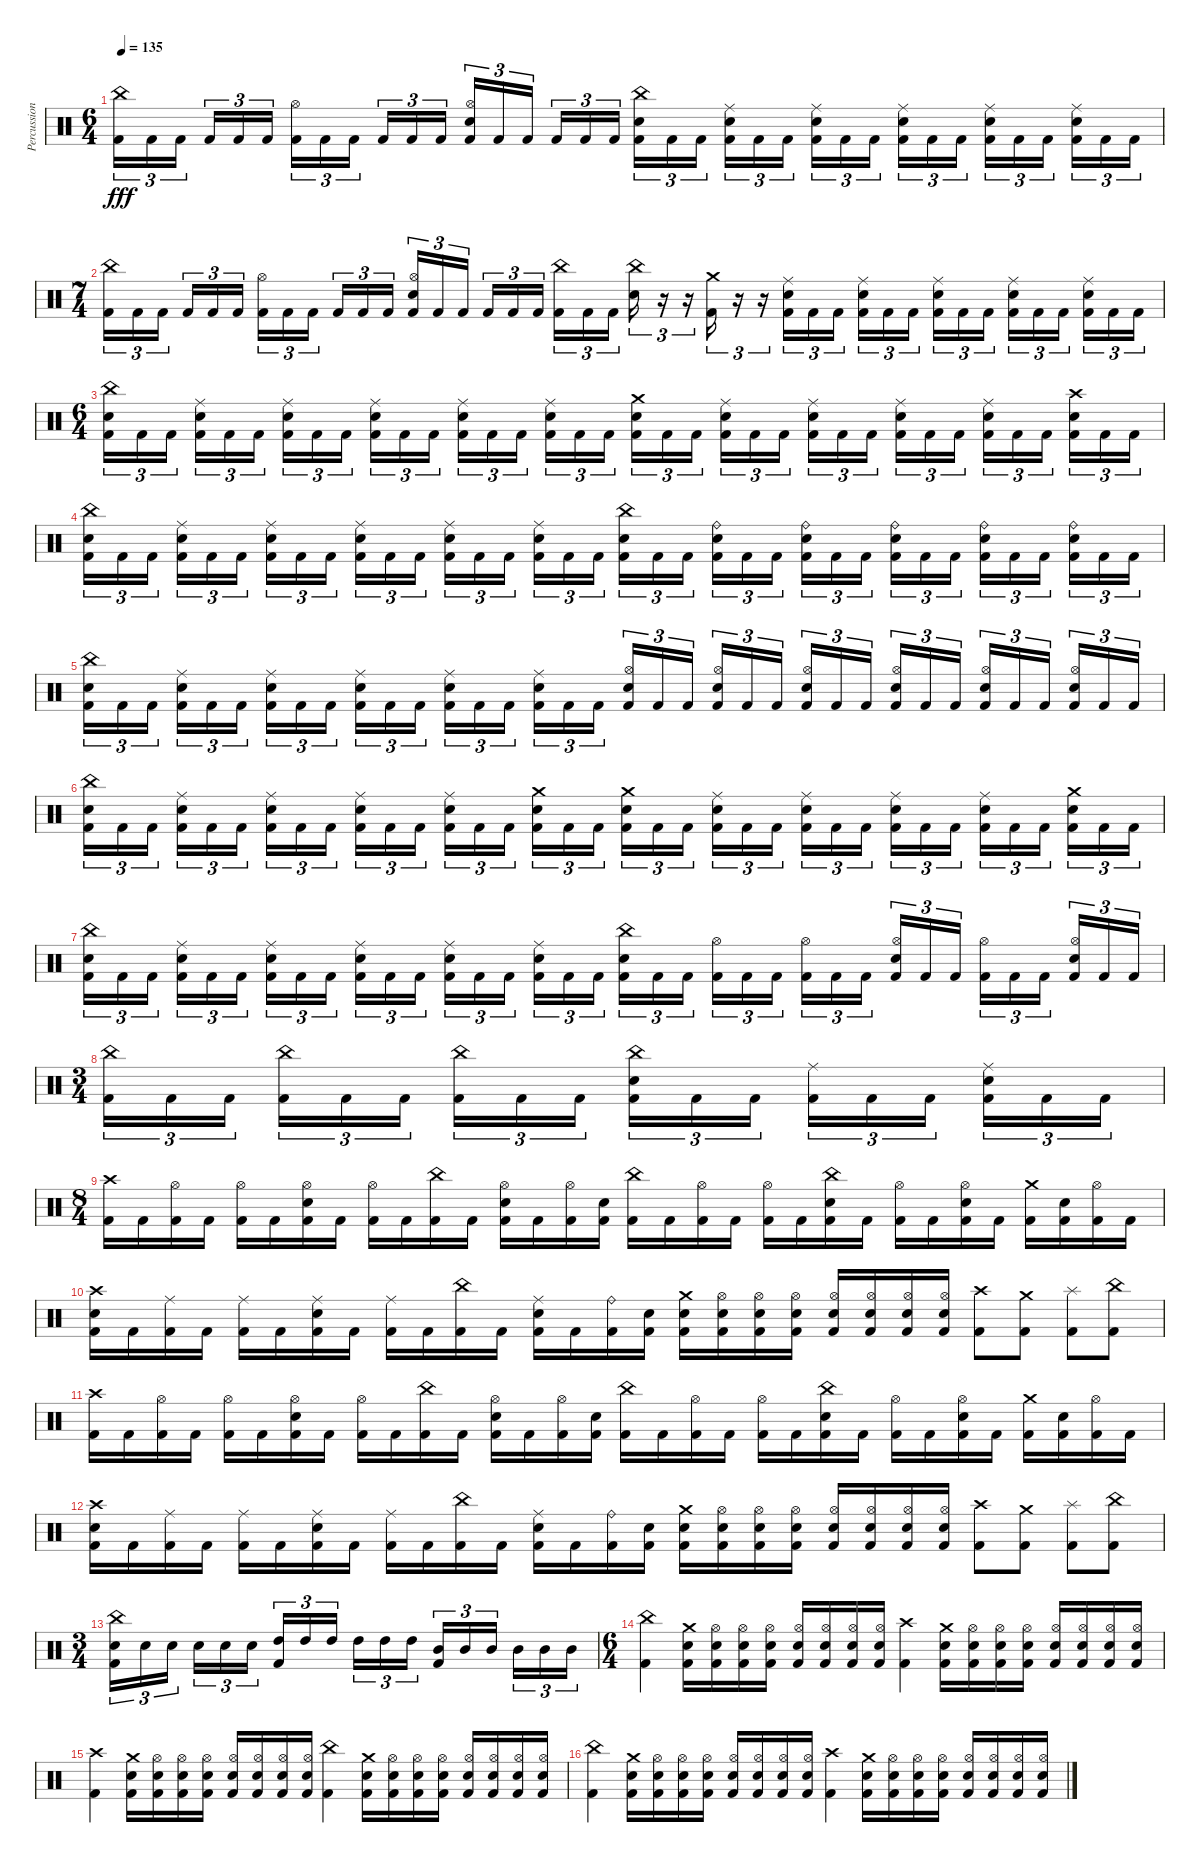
\track ("Percussion" "Percussion") {instrument percussion}
\staff {score}
\articulation defaults
\ts (6 4)
\tempo 135
\clef neutral
\ks c
("China (hit)" "Kick (hit) 2").16{tu (3 2) dy fff} "Kick (hit) 2".16{tu (3 2)} "Kick (hit) 2".16{tu (3 2) beam splitsecondary} "Kick (hit) 2".16{tu (3 2)} "Kick (hit) 2".16{tu (3 2)} "Kick (hit) 2".16{tu (3 2) beam splitsecondary} ("Hi-Hat (open)" "Kick (hit) 2").16{tu (3 2)} "Kick (hit) 2".16{tu (3 2)} "Kick (hit) 2".16{tu (3 2) beam splitsecondary} "Kick (hit) 2".16{tu (3 2)} "Kick (hit) 2".16{tu (3 2)} "Kick (hit) 2".16{tu (3 2) beam splitsecondary} ("Hi-Hat (open)" "Electric Snare (hit)" "Kick (hit) 2").16{tu (3 2)} "Kick (hit) 2".16{tu (3 2)} "Kick (hit) 2".16{tu (3 2) beam splitsecondary} "Kick (hit) 2".16{tu (3 2)} "Kick (hit) 2".16{tu (3 2)} "Kick (hit) 2".16{tu (3 2)} ("China (hit)" "Electric Snare (hit)" "Kick (hit) 2").16{tu (3 2)} "Kick (hit) 2".16{tu (3 2)} "Kick (hit) 2".16{tu (3 2) beam splitsecondary} ("Ride (middle)" "Electric Snare (hit)" "Kick (hit) 2").16{tu (3 2)} "Kick (hit) 2".16{tu (3 2)} "Kick (hit) 2".16{tu (3 2) beam splitsecondary} ("Ride (middle)" "Electric Snare (hit)" "Kick (hit) 2").16{tu (3 2)} "Kick (hit) 2".16{tu (3 2)} "Kick (hit) 2".16{tu (3 2) beam splitsecondary} ("Ride (middle)" "Electric Snare (hit)" "Kick (hit) 2").16{tu (3 2)} "Kick (hit) 2".16{tu (3 2)} "Kick (hit) 2".16{tu (3 2) beam splitsecondary} ("Ride (middle)" "Electric Snare (hit)" "Kick (hit) 2").16{tu (3 2)} "Kick (hit) 2".16{tu (3 2)} "Kick (hit) 2".16{tu (3 2) beam splitsecondary} ("Ride (middle)" "Electric Snare (hit)" "Kick (hit) 2").16{tu (3 2)} "Kick (hit) 2".16{tu (3 2)} "Kick (hit) 2".16{tu (3 2)} |
\ts (7 4)
("China (hit)" "Kick (hit) 2").16{tu (3 2)} "Kick (hit) 2".16{tu (3 2)} "Kick (hit) 2".16{tu (3 2) beam splitsecondary} "Kick (hit) 2".16{tu (3 2)} "Kick (hit) 2".16{tu (3 2)} "Kick (hit) 2".16{tu (3 2)} ("Hi-Hat (open)" "Kick (hit) 2").16{tu (3 2)} "Kick (hit) 2".16{tu (3 2)} "Kick (hit) 2".16{tu (3 2) beam splitsecondary} "Kick (hit) 2".16{tu (3 2)} "Kick (hit) 2".16{tu (3 2)} "Kick (hit) 2".16{tu (3 2)} ("Hi-Hat (open)" "Electric Snare (hit)" "Kick (hit) 2").16{tu (3 2)} "Kick (hit) 2".16{tu (3 2)} "Kick (hit) 2".16{tu (3 2) beam splitsecondary} "Kick (hit) 2".16{tu (3 2)} "Kick (hit) 2".16{tu (3 2)} "Kick (hit) 2".16{tu (3 2)} ("China (hit)" "Kick (hit) 2").16{tu (3 2)} "Kick (hit) 2".16{tu (3 2)} "Kick (hit) 2".16{tu (3 2) beam splitsecondary} ("China (hit)" "Electric Snare (hit)").16{tu (3 2)} r.16{tu (3 2)} r.16{tu (3 2)} ("Crash medium (hit)" "Kick (hit) 2").16{tu (3 2)} r.16{tu (3 2)} r.16{tu (3 2)} ("Ride (middle)" "Electric Snare (hit)" "Kick (hit) 2").16{tu (3 2)} "Kick (hit) 2".16{tu (3 2)} "Kick (hit) 2".16{tu (3 2)} ("Ride (middle)" "Electric Snare (hit)" "Kick (hit) 2").16{tu (3 2)} "Kick (hit) 2".16{tu (3 2)} "Kick (hit) 2".16{tu (3 2) beam splitsecondary} ("Ride (middle)" "Electric Snare (hit)" "Kick (hit) 2").16{tu (3 2)} "Kick (hit) 2".16{tu (3 2)} "Kick (hit) 2".16{tu (3 2)} ("Ride (middle)" "Electric Snare (hit)" "Kick (hit) 2").16{tu (3 2)} "Kick (hit) 2".16{tu (3 2)} "Kick (hit) 2".16{tu (3 2) beam splitsecondary} ("Ride (middle)" "Electric Snare (hit)" "Kick (hit) 2").16{tu (3 2)} "Kick (hit) 2".16{tu (3 2)} "Kick (hit) 2".16{tu (3 2)} |
\ts (6 4)
("China (hit)" "Electric Snare (hit)" "Kick (hit) 2").16{tu (3 2)} "Kick (hit) 2".16{tu (3 2)} "Kick (hit) 2".16{tu (3 2) beam splitsecondary} ("Ride (middle)" "Electric Snare (hit)" "Kick (hit) 2").16{tu (3 2)} "Kick (hit) 2".16{tu (3 2)} "Kick (hit) 2".16{tu (3 2) beam splitsecondary} ("Ride (middle)" "Electric Snare (hit)" "Kick (hit) 2").16{tu (3 2)} "Kick (hit) 2".16{tu (3 2)} "Kick (hit) 2".16{tu (3 2) beam splitsecondary} ("Ride (middle)" "Electric Snare (hit)" "Kick (hit) 2").16{tu (3 2)} "Kick (hit) 2".16{tu (3 2)} "Kick (hit) 2".16{tu (3 2) beam splitsecondary} ("Ride (middle)" "Electric Snare (hit)" "Kick (hit) 2").16{tu (3 2)} "Kick (hit) 2".16{tu (3 2)} "Kick (hit) 2".16{tu (3 2) beam splitsecondary} ("Ride (middle)" "Electric Snare (hit)" "Kick (hit) 2").16{tu (3 2)} "Kick (hit) 2".16{tu (3 2)} "Kick (hit) 2".16{tu (3 2)} ("Crash medium (hit)" "Electric Snare (hit)" "Kick (hit) 2").16{tu (3 2)} "Kick (hit) 2".16{tu (3 2)} "Kick (hit) 2".16{tu (3 2) beam splitsecondary} ("Ride (middle)" "Electric Snare (hit)" "Kick (hit) 2").16{tu (3 2)} "Kick (hit) 2".16{tu (3 2)} "Kick (hit) 2".16{tu (3 2) beam splitsecondary} ("Ride (middle)" "Electric Snare (hit)" "Kick (hit) 2").16{tu (3 2)} "Kick (hit) 2".16{tu (3 2)} "Kick (hit) 2".16{tu (3 2) beam splitsecondary} ("Ride (middle)" "Electric Snare (hit)" "Kick (hit) 2").16{tu (3 2)} "Kick (hit) 2".16{tu (3 2)} "Kick (hit) 2".16{tu (3 2) beam splitsecondary} ("Ride (middle)" "Electric Snare (hit)" "Kick (hit) 2").16{tu (3 2)} "Kick (hit) 2".16{tu (3 2)} "Kick (hit) 2".16{tu (3 2) beam splitsecondary} ("Crash high (hit)" "Electric Snare (hit)" "Kick (hit) 2").16{tu (3 2)} "Kick (hit) 2".16{tu (3 2)} "Kick (hit) 2".16{tu (3 2)} |
("China (hit)" "Electric Snare (hit)" "Kick (hit) 2").16{tu (3 2)} "Kick (hit) 2".16{tu (3 2)} "Kick (hit) 2".16{tu (3 2) beam splitsecondary} ("Ride (middle)" "Electric Snare (hit)" "Kick (hit) 2").16{tu (3 2)} "Kick (hit) 2".16{tu (3 2)} "Kick (hit) 2".16{tu (3 2) beam splitsecondary} ("Ride (middle)" "Electric Snare (hit)" "Kick (hit) 2").16{tu (3 2)} "Kick (hit) 2".16{tu (3 2)} "Kick (hit) 2".16{tu (3 2) beam splitsecondary} ("Ride (middle)" "Electric Snare (hit)" "Kick (hit) 2").16{tu (3 2)} "Kick (hit) 2".16{tu (3 2)} "Kick (hit) 2".16{tu (3 2) beam splitsecondary} ("Ride (middle)" "Electric Snare (hit)" "Kick (hit) 2").16{tu (3 2)} "Kick (hit) 2".16{tu (3 2)} "Kick (hit) 2".16{tu (3 2) beam splitsecondary} ("Ride (middle)" "Electric Snare (hit)" "Kick (hit) 2").16{tu (3 2)} "Kick (hit) 2".16{tu (3 2)} "Kick (hit) 2".16{tu (3 2)} ("China (hit)" "Electric Snare (hit)" "Kick (hit) 2").16{tu (3 2)} "Kick (hit) 2".16{tu (3 2)} "Kick (hit) 2".16{tu (3 2) beam splitsecondary} ("Ride (bell)" "Electric Snare (hit)" "Kick (hit) 2").16{tu (3 2)} "Kick (hit) 2".16{tu (3 2)} "Kick (hit) 2".16{tu (3 2) beam splitsecondary} ("Ride (bell)" "Electric Snare (hit)" "Kick (hit) 2").16{tu (3 2)} "Kick (hit) 2".16{tu (3 2)} "Kick (hit) 2".16{tu (3 2) beam splitsecondary} ("Ride (bell)" "Electric Snare (hit)" "Kick (hit) 2").16{tu (3 2)} "Kick (hit) 2".16{tu (3 2)} "Kick (hit) 2".16{tu (3 2) beam splitsecondary} ("Ride (bell)" "Electric Snare (hit)" "Kick (hit) 2").16{tu (3 2)} "Kick (hit) 2".16{tu (3 2)} "Kick (hit) 2".16{tu (3 2) beam splitsecondary} ("Ride (bell)" "Electric Snare (hit)" "Kick (hit) 2").16{tu (3 2)} "Kick (hit) 2".16{tu (3 2)} "Kick (hit) 2".16{tu (3 2)} |
("China (hit)" "Electric Snare (hit)" "Kick (hit) 2").16{tu (3 2)} "Kick (hit) 2".16{tu (3 2)} "Kick (hit) 2".16{tu (3 2) beam splitsecondary} ("Ride (middle)" "Electric Snare (hit)" "Kick (hit) 2").16{tu (3 2)} "Kick (hit) 2".16{tu (3 2)} "Kick (hit) 2".16{tu (3 2) beam splitsecondary} ("Ride (middle)" "Electric Snare (hit)" "Kick (hit) 2").16{tu (3 2)} "Kick (hit) 2".16{tu (3 2)} "Kick (hit) 2".16{tu (3 2) beam splitsecondary} ("Ride (middle)" "Electric Snare (hit)" "Kick (hit) 2").16{tu (3 2)} "Kick (hit) 2".16{tu (3 2)} "Kick (hit) 2".16{tu (3 2) beam splitsecondary} ("Ride (middle)" "Electric Snare (hit)" "Kick (hit) 2").16{tu (3 2)} "Kick (hit) 2".16{tu (3 2)} "Kick (hit) 2".16{tu (3 2) beam splitsecondary} ("Ride (middle)" "Electric Snare (hit)" "Kick (hit) 2").16{tu (3 2)} "Kick (hit) 2".16{tu (3 2)} "Kick (hit) 2".16{tu (3 2)} ("Hi-Hat (open)" "Electric Snare (hit)" "Kick (hit) 2").16{tu (3 2)} "Kick (hit) 2".16{tu (3 2)} "Kick (hit) 2".16{tu (3 2) beam splitsecondary} ("Hi-Hat (open)" "Electric Snare (hit)" "Kick (hit) 2").16{tu (3 2)} "Kick (hit) 2".16{tu (3 2)} "Kick (hit) 2".16{tu (3 2) beam splitsecondary} ("Hi-Hat (open)" "Electric Snare (hit)" "Kick (hit) 2").16{tu (3 2)} "Kick (hit) 2".16{tu (3 2)} "Kick (hit) 2".16{tu (3 2) beam splitsecondary} ("Hi-Hat (open)" "Electric Snare (hit)" "Kick (hit) 2").16{tu (3 2)} "Kick (hit) 2".16{tu (3 2)} "Kick (hit) 2".16{tu (3 2) beam splitsecondary} ("Hi-Hat (open)" "Electric Snare (hit)" "Kick (hit) 2").16{tu (3 2)} "Kick (hit) 2".16{tu (3 2)} "Kick (hit) 2".16{tu (3 2) beam splitsecondary} ("Hi-Hat (open)" "Electric Snare (hit)" "Kick (hit) 2").16{tu (3 2)} "Kick (hit) 2".16{tu (3 2)} "Kick (hit) 2".16{tu (3 2)} |
("China (hit)" "Electric Snare (hit)" "Kick (hit) 2").16{tu (3 2)} "Kick (hit) 2".16{tu (3 2)} "Kick (hit) 2".16{tu (3 2) beam splitsecondary} ("Ride (middle)" "Electric Snare (hit)" "Kick (hit) 2").16{tu (3 2)} "Kick (hit) 2".16{tu (3 2)} "Kick (hit) 2".16{tu (3 2) beam splitsecondary} ("Ride (middle)" "Electric Snare (hit)" "Kick (hit) 2").16{tu (3 2)} "Kick (hit) 2".16{tu (3 2)} "Kick (hit) 2".16{tu (3 2) beam splitsecondary} ("Ride (middle)" "Electric Snare (hit)" "Kick (hit) 2").16{tu (3 2)} "Kick (hit) 2".16{tu (3 2)} "Kick (hit) 2".16{tu (3 2) beam splitsecondary} ("Ride (middle)" "Electric Snare (hit)" "Kick (hit) 2").16{tu (3 2)} "Kick (hit) 2".16{tu (3 2)} "Kick (hit) 2".16{tu (3 2) beam splitsecondary} ("Crash medium (hit)" "Electric Snare (hit)" "Kick (hit) 2").16{tu (3 2)} "Kick (hit) 2".16{tu (3 2)} "Kick (hit) 2".16{tu (3 2)} ("Crash medium (hit)" "Electric Snare (hit)" "Kick (hit) 2").16{tu (3 2)} "Kick (hit) 2".16{tu (3 2)} "Kick (hit) 2".16{tu (3 2) beam splitsecondary} ("Ride (middle)" "Electric Snare (hit)" "Kick (hit) 2").16{tu (3 2)} "Kick (hit) 2".16{tu (3 2)} "Kick (hit) 2".16{tu (3 2) beam splitsecondary} ("Ride (middle)" "Electric Snare (hit)" "Kick (hit) 2").16{tu (3 2)} "Kick (hit) 2".16{tu (3 2)} "Kick (hit) 2".16{tu (3 2) beam splitsecondary} ("Ride (middle)" "Electric Snare (hit)" "Kick (hit) 2").16{tu (3 2)} "Kick (hit) 2".16{tu (3 2)} "Kick (hit) 2".16{tu (3 2) beam splitsecondary} ("Ride (middle)" "Electric Snare (hit)" "Kick (hit) 2").16{tu (3 2)} "Kick (hit) 2".16{tu (3 2)} "Kick (hit) 2".16{tu (3 2) beam splitsecondary} ("Crash medium (hit)" "Electric Snare (hit)" "Kick (hit) 2").16{tu (3 2)} "Kick (hit) 2".16{tu (3 2)} "Kick (hit) 2".16{tu (3 2)} |
("China (hit)" "Electric Snare (hit)" "Kick (hit) 2").16{tu (3 2)} "Kick (hit) 2".16{tu (3 2)} "Kick (hit) 2".16{tu (3 2) beam splitsecondary} ("Ride (middle)" "Electric Snare (hit)" "Kick (hit) 2").16{tu (3 2)} "Kick (hit) 2".16{tu (3 2)} "Kick (hit) 2".16{tu (3 2) beam splitsecondary} ("Ride (middle)" "Electric Snare (hit)" "Kick (hit) 2").16{tu (3 2)} "Kick (hit) 2".16{tu (3 2)} "Kick (hit) 2".16{tu (3 2) beam splitsecondary} ("Ride (middle)" "Electric Snare (hit)" "Kick (hit) 2").16{tu (3 2)} "Kick (hit) 2".16{tu (3 2)} "Kick (hit) 2".16{tu (3 2) beam splitsecondary} ("Ride (middle)" "Electric Snare (hit)" "Kick (hit) 2").16{tu (3 2)} "Kick (hit) 2".16{tu (3 2)} "Kick (hit) 2".16{tu (3 2) beam splitsecondary} ("Ride (middle)" "Electric Snare (hit)" "Kick (hit) 2").16{tu (3 2)} "Kick (hit) 2".16{tu (3 2)} "Kick (hit) 2".16{tu (3 2)} ("China (hit)" "Electric Snare (hit)" "Kick (hit) 2").16{tu (3 2)} "Kick (hit) 2".16{tu (3 2)} "Kick (hit) 2".16{tu (3 2) beam splitsecondary} ("Hi-Hat (open)" "Kick (hit) 2").16{tu (3 2)} "Kick (hit) 2".16{tu (3 2)} "Kick (hit) 2".16{tu (3 2) beam splitsecondary} ("Hi-Hat (open)" "Kick (hit) 2").16{tu (3 2)} "Kick (hit) 2".16{tu (3 2)} "Kick (hit) 2".16{tu (3 2) beam splitsecondary} ("Hi-Hat (open)" "Electric Snare (hit)" "Kick (hit) 2").16{tu (3 2)} "Kick (hit) 2".16{tu (3 2)} "Kick (hit) 2".16{tu (3 2) beam splitsecondary} ("Hi-Hat (open)" "Kick (hit) 2").16{tu (3 2)} "Kick (hit) 2".16{tu (3 2)} "Kick (hit) 2".16{tu (3 2) beam splitsecondary} ("Hi-Hat (open)" "Electric Snare (hit)" "Kick (hit) 2").16{tu (3 2)} "Kick (hit) 2".16{tu (3 2)} "Kick (hit) 2".16{tu (3 2)} |
\ts (3 4)
("China (hit)" "Kick (hit) 2").16{tu (3 2)} "Kick (hit) 2".16{tu (3 2)} "Kick (hit) 2".16{tu (3 2) beam splitsecondary} ("China (hit)" "Kick (hit) 2").16{tu (3 2)} "Kick (hit) 2".16{tu (3 2)} "Kick (hit) 2".16{tu (3 2)} ("China (hit)" "Kick (hit) 2").16{tu (3 2)} "Kick (hit) 2".16{tu (3 2)} "Kick (hit) 2".16{tu (3 2) beam splitsecondary} ("China (hit)" "Electric Snare (hit)" "Kick (hit) 2").16{tu (3 2)} "Kick (hit) 2".16{tu (3 2)} "Kick (hit) 2".16{tu (3 2)} ("Ride (middle)" "Kick (hit) 2").16{tu (3 2)} "Kick (hit) 2".16{tu (3 2)} "Kick (hit) 2".16{tu (3 2) beam splitsecondary} ("Ride (middle)" "Electric Snare (hit)" "Kick (hit) 2").16{tu (3 2)} "Kick (hit) 2".16{tu (3 2)} "Kick (hit) 2".16{tu (3 2)} |
\ts (8 4)
("Crash high (hit)" "Kick (hit) 2").16 "Kick (hit) 2".16 ("Hi-Hat (open)" "Kick (hit) 2").16 "Kick (hit) 2".16 ("Hi-Hat (open)" "Kick (hit) 2").16 "Kick (hit) 2".16 ("Electric Snare (hit)" "Hi-Hat (open)" "Kick (hit) 2").16 "Kick (hit) 2".16 ("Hi-Hat (open)" "Kick (hit) 2").16 "Kick (hit) 2".16 ("China (hit)" "Kick (hit) 2").16 "Kick (hit) 2".16 ("Electric Snare (hit)" "Hi-Hat (open)" "Kick (hit) 2").16 "Kick (hit) 2".16 ("Hi-Hat (open)" "Kick (hit) 2").16 ("Electric Snare (hit)" "Kick (hit) 2").16 ("China (hit)" "Kick (hit) 2").16 "Kick (hit) 2".16 ("Hi-Hat (open)" "Kick (hit) 2").16 "Kick (hit) 2".16 ("Hi-Hat (open)" "Kick (hit) 2").16 "Kick (hit) 2".16 ("China (hit)" "Electric Snare (hit)" "Kick (hit) 2").16 "Kick (hit) 2".16 ("Hi-Hat (open)" "Kick (hit) 2").16 "Kick (hit) 2".16 ("Hi-Hat (open)" "Electric Snare (hit)" "Kick (hit) 2").16 "Kick (hit) 2".16 ("Crash medium (hit)" "Kick (hit) 2").16 ("Electric Snare (hit)" "Kick (hit) 2").16 ("Hi-Hat (open)" "Kick (hit) 2").16 "Kick (hit) 2".16 |
("Electric Snare (hit)" "Crash high (hit)" "Kick (hit) 2").16 "Kick (hit) 2".16 ("Ride (middle)" "Kick (hit) 2").16 "Kick (hit) 2".16 ("Ride (middle)" "Kick (hit) 2").16 "Kick (hit) 2".16 ("Electric Snare (hit)" "Ride (middle)" "Kick (hit) 2").16 "Kick (hit) 2".16 ("Ride (middle)" "Kick (hit) 2").16 "Kick (hit) 2".16 ("China (hit)" "Kick (hit) 2").16 "Kick (hit) 2".16 ("Electric Snare (hit)" "Ride (middle)" "Kick (hit) 2").16 "Kick (hit) 2".16 ("Ride (bell)" "Kick (hit) 2").16 ("Electric Snare (hit)" "Kick (hit) 2").16 ("Crash medium (hit)" "Kick (hit) 2" "Electric Snare (hit)").16 ("Hi-Hat (open)" "Kick (hit) 2" "Electric Snare (hit)").16 ("Hi-Hat (open)" "Kick (hit) 2" "Electric Snare (hit)").16 ("Hi-Hat (open)" "Kick (hit) 2" "Electric Snare (hit)").16 ("Hi-Hat (open)" "Kick (hit) 2" "Electric Snare (hit)").16 ("Hi-Hat (open)" "Kick (hit) 2" "Electric Snare (hit)").16 ("Hi-Hat (open)" "Kick (hit) 2" "Electric Snare (hit)").16 ("Hi-Hat (open)" "Kick (hit) 2" "Electric Snare (hit)").16 ("Crash high (hit)" "Kick (hit) 2").8 ("Crash medium (hit)" "Kick (hit) 2").8 ("Splash (hit)" "Kick (hit) 2").8 ("China (hit)" "Kick (hit) 2").8 |
("Crash high (hit)" "Kick (hit) 2").16 "Kick (hit) 2".16 ("Hi-Hat (open)" "Kick (hit) 2").16 "Kick (hit) 2".16 ("Hi-Hat (open)" "Kick (hit) 2").16 "Kick (hit) 2".16 ("Electric Snare (hit)" "Hi-Hat (open)" "Kick (hit) 2").16 "Kick (hit) 2".16 ("Hi-Hat (open)" "Kick (hit) 2").16 "Kick (hit) 2".16 ("China (hit)" "Kick (hit) 2").16 "Kick (hit) 2".16 ("Electric Snare (hit)" "Hi-Hat (open)" "Kick (hit) 2").16 "Kick (hit) 2".16 ("Hi-Hat (open)" "Kick (hit) 2").16 ("Electric Snare (hit)" "Kick (hit) 2").16 ("China (hit)" "Kick (hit) 2").16 "Kick (hit) 2".16 ("Hi-Hat (open)" "Kick (hit) 2").16 "Kick (hit) 2".16 ("Hi-Hat (open)" "Kick (hit) 2").16 "Kick (hit) 2".16 ("China (hit)" "Electric Snare (hit)" "Kick (hit) 2").16 "Kick (hit) 2".16 ("Hi-Hat (open)" "Kick (hit) 2").16 "Kick (hit) 2".16 ("Hi-Hat (open)" "Electric Snare (hit)" "Kick (hit) 2").16 "Kick (hit) 2".16 ("Crash medium (hit)" "Kick (hit) 2").16 ("Electric Snare (hit)" "Kick (hit) 2").16 ("Hi-Hat (open)" "Kick (hit) 2").16 "Kick (hit) 2".16 |
("Electric Snare (hit)" "Crash high (hit)" "Kick (hit) 2").16 "Kick (hit) 2".16 ("Ride (middle)" "Kick (hit) 2").16 "Kick (hit) 2".16 ("Ride (middle)" "Kick (hit) 2").16 "Kick (hit) 2".16 ("Electric Snare (hit)" "Ride (middle)" "Kick (hit) 2").16 "Kick (hit) 2".16 ("Ride (middle)" "Kick (hit) 2").16 "Kick (hit) 2".16 ("China (hit)" "Kick (hit) 2").16 "Kick (hit) 2".16 ("Electric Snare (hit)" "Ride (middle)" "Kick (hit) 2").16 "Kick (hit) 2".16 ("Ride (bell)" "Kick (hit) 2").16 ("Electric Snare (hit)" "Kick (hit) 2").16 ("Crash medium (hit)" "Kick (hit) 2" "Electric Snare (hit)").16 ("Hi-Hat (open)" "Kick (hit) 2" "Electric Snare (hit)").16 ("Hi-Hat (open)" "Kick (hit) 2" "Electric Snare (hit)").16 ("Hi-Hat (open)" "Kick (hit) 2" "Electric Snare (hit)").16 ("Hi-Hat (open)" "Kick (hit) 2" "Electric Snare (hit)").16 ("Hi-Hat (open)" "Kick (hit) 2" "Electric Snare (hit)").16 ("Hi-Hat (open)" "Kick (hit) 2" "Electric Snare (hit)").16 ("Hi-Hat (open)" "Kick (hit) 2" "Electric Snare (hit)").16 ("Crash high (hit)" "Kick (hit) 2").8 ("Crash medium (hit)" "Kick (hit) 2").8 ("Splash (hit)" "Kick (hit) 2").8 ("China (hit)" "Kick (hit) 2").8 |
\ts (3 4)
("China (hit)" "Kick (hit) 2" "Electric Snare (hit)").16{tu (3 2)} "Electric Snare (hit)".16{tu (3 2)} "Electric Snare (hit)".16{tu (3 2) beam splitsecondary} "Electric Snare (hit)".16{tu (3 2)} "Electric Snare (hit)".16{tu (3 2)} "Electric Snare (hit)".16{tu (3 2)} ("Kick (hit) 2" "High Tom (hit)").16{tu (3 2)} "High Tom (hit)".16{tu (3 2)} "High Tom (hit)".16{tu (3 2) beam splitsecondary} "High Tom (hit)".16{tu (3 2)} "High Tom (hit)".16{tu (3 2)} "High Tom (hit)".16{tu (3 2)} ("Kick (hit) 2" "Mid Tom (hit)").16{tu (3 2)} "Mid Tom (hit)".16{tu (3 2)} "Mid Tom (hit)".16{tu (3 2) beam splitsecondary} "Mid Tom (hit)".16{tu (3 2)} "Mid Tom (hit)".16{tu (3 2)} "Mid Tom (hit)".16{tu (3 2)} |
\ts (6 4)
("Kick (hit) 2" "China (hit)").4 ("Crash medium (hit)" "Kick (hit) 2" "Electric Snare (hit)").16 ("Hi-Hat (open)" "Kick (hit) 2" "Electric Snare (hit)").16 ("Hi-Hat (open)" "Kick (hit) 2" "Electric Snare (hit)").16 ("Hi-Hat (open)" "Kick (hit) 2" "Electric Snare (hit)").16 ("Hi-Hat (open)" "Kick (hit) 2" "Electric Snare (hit)").16 ("Hi-Hat (open)" "Kick (hit) 2" "Electric Snare (hit)").16 ("Hi-Hat (open)" "Kick (hit) 2" "Electric Snare (hit)").16 ("Hi-Hat (open)" "Kick (hit) 2" "Electric Snare (hit)").16 ("Kick (hit) 2" "Crash high (hit)").4 ("Crash medium (hit)" "Kick (hit) 2" "Electric Snare (hit)").16 ("Hi-Hat (open)" "Kick (hit) 2" "Electric Snare (hit)").16 ("Hi-Hat (open)" "Kick (hit) 2" "Electric Snare (hit)").16 ("Hi-Hat (open)" "Kick (hit) 2" "Electric Snare (hit)").16 ("Hi-Hat (open)" "Kick (hit) 2" "Electric Snare (hit)").16 ("Hi-Hat (open)" "Kick (hit) 2" "Electric Snare (hit)").16 ("Hi-Hat (open)" "Kick (hit) 2" "Electric Snare (hit)").16 ("Hi-Hat (open)" "Kick (hit) 2" "Electric Snare (hit)").16 |
("Kick (hit) 2" "Crash high (hit)").4 ("Crash medium (hit)" "Kick (hit) 2" "Electric Snare (hit)").16 ("Hi-Hat (open)" "Kick (hit) 2" "Electric Snare (hit)").16 ("Hi-Hat (open)" "Kick (hit) 2" "Electric Snare (hit)").16 ("Hi-Hat (open)" "Kick (hit) 2" "Electric Snare (hit)").16 ("Hi-Hat (open)" "Kick (hit) 2" "Electric Snare (hit)").16 ("Hi-Hat (open)" "Kick (hit) 2" "Electric Snare (hit)").16 ("Hi-Hat (open)" "Kick (hit) 2" "Electric Snare (hit)").16 ("Hi-Hat (open)" "Kick (hit) 2" "Electric Snare (hit)").16 ("Kick (hit) 2" "China (hit)").4 ("Crash medium (hit)" "Kick (hit) 2" "Electric Snare (hit)").16 ("Hi-Hat (open)" "Kick (hit) 2" "Electric Snare (hit)").16 ("Hi-Hat (open)" "Kick (hit) 2" "Electric Snare (hit)").16 ("Hi-Hat (open)" "Kick (hit) 2" "Electric Snare (hit)").16 ("Hi-Hat (open)" "Kick (hit) 2" "Electric Snare (hit)").16 ("Hi-Hat (open)" "Kick (hit) 2" "Electric Snare (hit)").16 ("Hi-Hat (open)" "Kick (hit) 2" "Electric Snare (hit)").16 ("Hi-Hat (open)" "Kick (hit) 2" "Electric Snare (hit)").16 |
("Kick (hit) 2" "China (hit)").4 ("Crash medium (hit)" "Kick (hit) 2" "Electric Snare (hit)").16 ("Hi-Hat (open)" "Kick (hit) 2" "Electric Snare (hit)").16 ("Hi-Hat (open)" "Kick (hit) 2" "Electric Snare (hit)").16 ("Hi-Hat (open)" "Kick (hit) 2" "Electric Snare (hit)").16 ("Hi-Hat (open)" "Kick (hit) 2" "Electric Snare (hit)").16 ("Hi-Hat (open)" "Kick (hit) 2" "Electric Snare (hit)").16 ("Hi-Hat (open)" "Kick (hit) 2" "Electric Snare (hit)").16 ("Hi-Hat (open)" "Kick (hit) 2" "Electric Snare (hit)").16 ("Kick (hit) 2" "Crash high (hit)").4 ("Crash medium (hit)" "Kick (hit) 2" "Electric Snare (hit)").16 ("Hi-Hat (open)" "Kick (hit) 2" "Electric Snare (hit)").16 ("Hi-Hat (open)" "Kick (hit) 2" "Electric Snare (hit)").16 ("Hi-Hat (open)" "Kick (hit) 2" "Electric Snare (hit)").16 ("Hi-Hat (open)" "Kick (hit) 2" "Electric Snare (hit)").16 ("Hi-Hat (open)" "Kick (hit) 2" "Electric Snare (hit)").16 ("Hi-Hat (open)" "Kick (hit) 2" "Electric Snare (hit)").16 ("Hi-Hat (open)" "Kick (hit) 2" "Electric Snare (hit)").16
